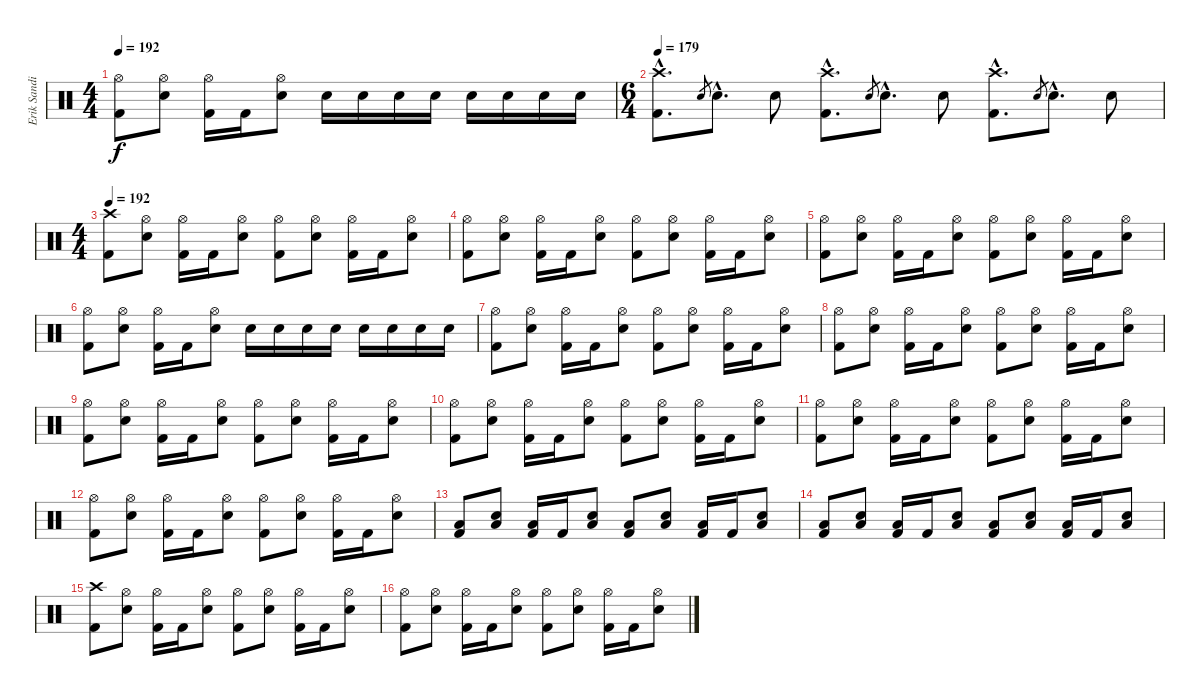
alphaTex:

\track ("Erik Sandin - Drums" "Erik Sandi") {instrument percussion}
\staff {score}
\articulation defaults
\ts (4 4)
\tempo 192
\clef neutral
\ks c
("Hi-Hat (open)" "Kick (hit) 2").8{dy f} ("Hi-Hat (open)" "Electric Snare (hit)").8 ("Hi-Hat (open)" "Kick (hit) 2").16 "Kick (hit) 2".16 ("Hi-Hat (open)" "Electric Snare (hit)").8 "Electric Snare (hit)".16 "Electric Snare (hit)".16 "Electric Snare (hit)".16 "Electric Snare (hit)".16 "Electric Snare (hit)".16 "Electric Snare (hit)".16 "Electric Snare (hit)".16 "Electric Snare (hit)".16 |
\ts (6 4)
\tempo 179
("Crash high (hit)"{hac} "Kick (hit) 2"{hac}).8{d} "Electric Snare (hit)".8{gr} "Electric Snare (hit)"{hac}.8{d} "Electric Snare (hit)".8 ("Crash high (hit)"{hac} "Kick (hit) 2"{hac}).8{d} "Electric Snare (hit)".8{gr} "Electric Snare (hit)"{hac}.8{d} "Electric Snare (hit)".8 ("Crash high (hit)"{hac} "Kick (hit) 2"{hac}).8{d} "Electric Snare (hit)".8{gr} "Electric Snare (hit)"{hac}.8{d} "Electric Snare (hit)".8 |
\ts (4 4)
\tempo 192
("Crash high (hit)" "Kick (hit) 2").8 ("Hi-Hat (open)" "Electric Snare (hit)").8 ("Hi-Hat (open)" "Kick (hit) 2").16 "Kick (hit) 2".16 ("Hi-Hat (open)" "Electric Snare (hit)").8 ("Hi-Hat (open)" "Kick (hit) 2").8 ("Hi-Hat (open)" "Electric Snare (hit)").8 ("Hi-Hat (open)" "Kick (hit) 2").16 "Kick (hit) 2".16 ("Hi-Hat (open)" "Electric Snare (hit)").8 |
("Hi-Hat (open)" "Kick (hit) 2").8 ("Hi-Hat (open)" "Electric Snare (hit)").8 ("Hi-Hat (open)" "Kick (hit) 2").16 "Kick (hit) 2".16 ("Hi-Hat (open)" "Electric Snare (hit)").8 ("Hi-Hat (open)" "Kick (hit) 2").8 ("Hi-Hat (open)" "Electric Snare (hit)").8 ("Hi-Hat (open)" "Kick (hit) 2").16 "Kick (hit) 2".16 ("Hi-Hat (open)" "Electric Snare (hit)").8 |
("Hi-Hat (open)" "Kick (hit) 2").8 ("Hi-Hat (open)" "Electric Snare (hit)").8 ("Hi-Hat (open)" "Kick (hit) 2").16 "Kick (hit) 2".16 ("Hi-Hat (open)" "Electric Snare (hit)").8 ("Hi-Hat (open)" "Kick (hit) 2").8 ("Hi-Hat (open)" "Electric Snare (hit)").8 ("Hi-Hat (open)" "Kick (hit) 2").16 "Kick (hit) 2".16 ("Hi-Hat (open)" "Electric Snare (hit)").8 |
("Hi-Hat (open)" "Kick (hit) 2").8 ("Hi-Hat (open)" "Electric Snare (hit)").8 ("Hi-Hat (open)" "Kick (hit) 2").16 "Kick (hit) 2".16 ("Hi-Hat (open)" "Electric Snare (hit)").8 "Electric Snare (hit)".16 "Electric Snare (hit)".16 "Electric Snare (hit)".16 "Electric Snare (hit)".16 "Electric Snare (hit)".16 "Electric Snare (hit)".16 "Electric Snare (hit)".16 "Electric Snare (hit)".16 |
("Hi-Hat (open)" "Kick (hit) 2").8 ("Hi-Hat (open)" "Electric Snare (hit)").8 ("Hi-Hat (open)" "Kick (hit) 2").16 "Kick (hit) 2".16 ("Hi-Hat (open)" "Electric Snare (hit)").8 ("Hi-Hat (open)" "Kick (hit) 2").8 ("Hi-Hat (open)" "Electric Snare (hit)").8 ("Hi-Hat (open)" "Kick (hit) 2").16 "Kick (hit) 2".16 ("Hi-Hat (open)" "Electric Snare (hit)").8 |
("Hi-Hat (open)" "Kick (hit) 2").8 ("Hi-Hat (open)" "Electric Snare (hit)").8 ("Hi-Hat (open)" "Kick (hit) 2").16 "Kick (hit) 2".16 ("Hi-Hat (open)" "Electric Snare (hit)").8 ("Hi-Hat (open)" "Kick (hit) 2").8 ("Hi-Hat (open)" "Electric Snare (hit)").8 ("Hi-Hat (open)" "Kick (hit) 2").16 "Kick (hit) 2".16 ("Hi-Hat (open)" "Electric Snare (hit)").8 |
("Hi-Hat (open)" "Kick (hit) 2").8 ("Hi-Hat (open)" "Electric Snare (hit)").8 ("Hi-Hat (open)" "Kick (hit) 2").16 "Kick (hit) 2".16 ("Hi-Hat (open)" "Electric Snare (hit)").8 ("Hi-Hat (open)" "Kick (hit) 2").8 ("Hi-Hat (open)" "Electric Snare (hit)").8 ("Hi-Hat (open)" "Kick (hit) 2").16 "Kick (hit) 2".16 ("Hi-Hat (open)" "Electric Snare (hit)").8 |
("Hi-Hat (open)" "Kick (hit) 2").8 ("Hi-Hat (open)" "Electric Snare (hit)").8 ("Hi-Hat (open)" "Kick (hit) 2").16 "Kick (hit) 2".16 ("Hi-Hat (open)" "Electric Snare (hit)").8 ("Hi-Hat (open)" "Kick (hit) 2").8 ("Hi-Hat (open)" "Electric Snare (hit)").8 ("Hi-Hat (open)" "Kick (hit) 2").16 "Kick (hit) 2".16 ("Hi-Hat (open)" "Electric Snare (hit)").8 |
("Hi-Hat (open)" "Kick (hit) 2").8 ("Hi-Hat (open)" "Electric Snare (hit)").8 ("Hi-Hat (open)" "Kick (hit) 2").16 "Kick (hit) 2".16 ("Hi-Hat (open)" "Electric Snare (hit)").8 ("Hi-Hat (open)" "Kick (hit) 2").8 ("Hi-Hat (open)" "Electric Snare (hit)").8 ("Hi-Hat (open)" "Kick (hit) 2").16 "Kick (hit) 2".16 ("Hi-Hat (open)" "Electric Snare (hit)").8 |
("Hi-Hat (open)" "Kick (hit) 2").8 ("Hi-Hat (open)" "Electric Snare (hit)").8 ("Hi-Hat (open)" "Kick (hit) 2").16 "Kick (hit) 2".16 ("Hi-Hat (open)" "Electric Snare (hit)").8 ("Hi-Hat (open)" "Kick (hit) 2").8 ("Hi-Hat (open)" "Electric Snare (hit)").8 ("Hi-Hat (open)" "Kick (hit) 2").16 "Kick (hit) 2".16 ("Hi-Hat (open)" "Electric Snare (hit)").8 |
("Low Floor Tom (hit)" "Kick (hit) 2").8 ("Low Floor Tom (hit)" "Electric Snare (hit)").8 ("Low Floor Tom (hit)" "Kick (hit) 2").16 "Kick (hit) 2".16 ("Low Floor Tom (hit)" "Electric Snare (hit)").8 ("Low Floor Tom (hit)" "Kick (hit) 2").8 ("Low Floor Tom (hit)" "Electric Snare (hit)").8 ("Low Floor Tom (hit)" "Kick (hit) 2").16 "Kick (hit) 2".16 ("Low Floor Tom (hit)" "Electric Snare (hit)").8 |
("Low Floor Tom (hit)" "Kick (hit) 2").8 ("Low Floor Tom (hit)" "Electric Snare (hit)").8 ("Low Floor Tom (hit)" "Kick (hit) 2").16 "Kick (hit) 2".16 ("Low Floor Tom (hit)" "Electric Snare (hit)").8 ("Low Floor Tom (hit)" "Kick (hit) 2").8 ("Low Floor Tom (hit)" "Electric Snare (hit)").8 ("Low Floor Tom (hit)" "Kick (hit) 2").16 "Kick (hit) 2".16 ("Low Floor Tom (hit)" "Electric Snare (hit)").8 |
("Crash high (hit)" "Kick (hit) 2").8 ("Hi-Hat (open)" "Electric Snare (hit)").8 ("Hi-Hat (open)" "Kick (hit) 2").16 "Kick (hit) 2".16 ("Hi-Hat (open)" "Electric Snare (hit)").8 ("Hi-Hat (open)" "Kick (hit) 2").8 ("Hi-Hat (open)" "Electric Snare (hit)").8 ("Hi-Hat (open)" "Kick (hit) 2").16 "Kick (hit) 2".16 ("Hi-Hat (open)" "Electric Snare (hit)").8 |
("Hi-Hat (open)" "Kick (hit) 2").8 ("Hi-Hat (open)" "Electric Snare (hit)").8 ("Hi-Hat (open)" "Kick (hit) 2").16 "Kick (hit) 2".16 ("Hi-Hat (open)" "Electric Snare (hit)").8 ("Hi-Hat (open)" "Kick (hit) 2").8 ("Hi-Hat (open)" "Electric Snare (hit)").8 ("Hi-Hat (open)" "Kick (hit) 2").16 "Kick (hit) 2".16 ("Hi-Hat (open)" "Electric Snare (hit)").8
